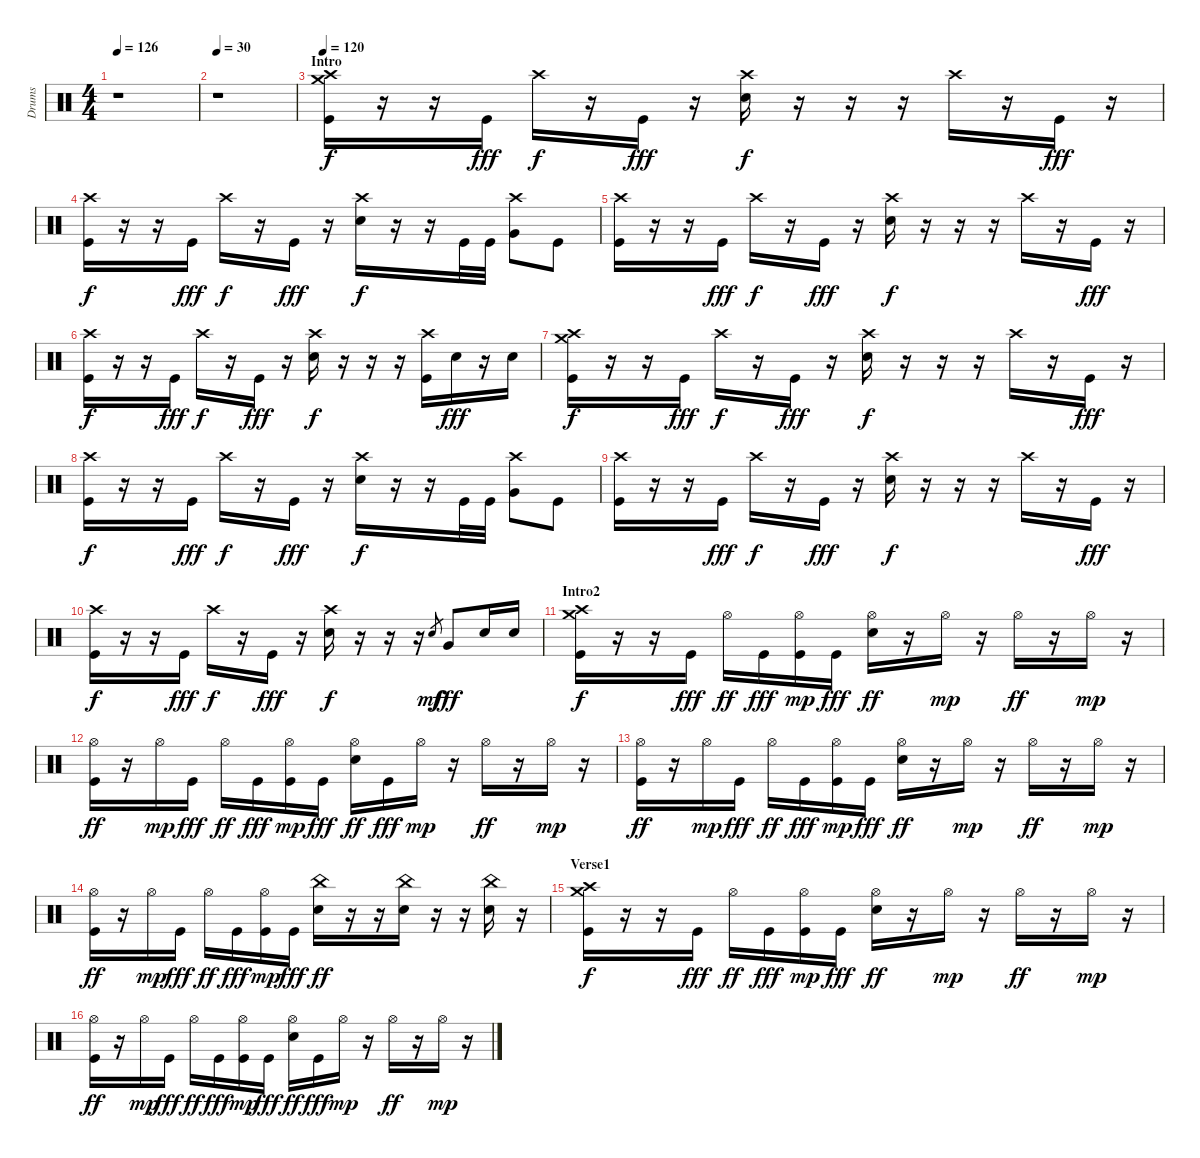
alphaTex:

\track ("Drums" "Drums") {instrument percussion}
\staff {score}
\articulation defaults
\ts (4 4)
\tempo 126
\clef neutral
\ks c
r.1{dy f} |
\tempo 30
r.1 |
\section ("" "Intro")
\tempo 120
("Crash high (hit)" "Crash medium (hit)" "Kick (hit)").16 r.16 r.16 "Kick (hit)".16{dy fff} "Crash high (hit)".16{dy f} r.16 "Kick (hit)".16{dy fff} r.16 ("Crash high (hit)" "Snare (hit) 2").16{dy f} r.16 r.16 r.16 "Crash high (hit)".16 r.16 "Kick (hit)".16{dy fff} r.16 |
("Crash high (hit)" "Kick (hit)").16{dy f} r.16 r.16 "Kick (hit)".16{dy fff} "Crash high (hit)".16{dy f} r.16 "Kick (hit)".16{dy fff} r.16 ("Crash high (hit)" "Snare (hit) 2").16{dy f} r.16 r.16 "Kick (hit)".32 "Kick (hit)".32 ("Crash high (hit)" "Very Low Tom (hit)").8 "Kick (hit)".8 |
("Crash high (hit)" "Kick (hit)").16 r.16 r.16 "Kick (hit)".16{dy fff} "Crash high (hit)".16{dy f} r.16 "Kick (hit)".16{dy fff} r.16 ("Crash high (hit)" "Snare (hit) 2").16{dy f} r.16 r.16 r.16 "Crash high (hit)".16 r.16 "Kick (hit)".16{dy fff} r.16 |
("Crash high (hit)" "Kick (hit)").16{dy f} r.16 r.16 "Kick (hit)".16{dy fff} "Crash high (hit)".16{dy f} r.16 "Kick (hit)".16{dy fff} r.16 ("Crash high (hit)" "Snare (hit) 2").16{dy f} r.16 r.16 r.16 ("Crash high (hit)" "Kick (hit)").16 "Snare (hit) 2".16{dy fff} r.16 "Snare (hit) 2".16 |
("Crash high (hit)" "Crash medium (hit)" "Kick (hit)").16{dy f} r.16 r.16 "Kick (hit)".16{dy fff} "Crash high (hit)".16{dy f} r.16 "Kick (hit)".16{dy fff} r.16 ("Crash high (hit)" "Snare (hit) 2").16{dy f} r.16 r.16 r.16 "Crash high (hit)".16 r.16 "Kick (hit)".16{dy fff} r.16 |
("Crash high (hit)" "Kick (hit)").16{dy f} r.16 r.16 "Kick (hit)".16{dy fff} "Crash high (hit)".16{dy f} r.16 "Kick (hit)".16{dy fff} r.16 ("Crash high (hit)" "Snare (hit) 2").16{dy f} r.16 r.16 "Kick (hit)".32 "Kick (hit)".32 ("Crash high (hit)" "Very Low Tom (hit)").8 "Kick (hit)".8 |
("Crash high (hit)" "Kick (hit)").16 r.16 r.16 "Kick (hit)".16{dy fff} "Crash high (hit)".16{dy f} r.16 "Kick (hit)".16{dy fff} r.16 ("Crash high (hit)" "Snare (hit) 2").16{dy f} r.16 r.16 r.16 "Crash high (hit)".16 r.16 "Kick (hit)".16{dy fff} r.16 |
("Crash high (hit)" "Kick (hit)").16{dy f} r.16 r.16 "Kick (hit)".16{dy fff} "Crash high (hit)".16{dy f} r.16 "Kick (hit)".16{dy fff} r.16 ("Crash high (hit)" "Snare (hit) 2").16{dy f} r.16 r.16 r.16 "Snare (hit)".8{gr dy mf} "Very Low Tom (hit)".8{dy fff} "Snare (hit) 2".16 "Snare (hit) 2".16 |
\section ("" "Intro2")
("Crash high (hit)" "Crash medium (hit)" "Kick (hit)").16{dy f} r.16 r.16 "Kick (hit)".16{dy fff} "Hi-Hat (open)".16{dy ff} "Kick (hit)".16{dy fff} ("Hi-Hat (open)" "Kick (hit)").16{dy mp} "Kick (hit)".16{dy fff} ("Hi-Hat (open)" "Snare (hit) 2").16{dy ff} r.16 "Hi-Hat (open)".16{dy mp} r.16 "Hi-Hat (open)".16{dy ff} r.16 "Hi-Hat (open)".16{dy mp} r.16 |
("Hi-Hat (open)" "Kick (hit)").16{dy ff} r.16 "Hi-Hat (open)".16{dy mp} "Kick (hit)".16{dy fff} "Hi-Hat (open)".16{dy ff} "Kick (hit)".16{dy fff} ("Hi-Hat (open)" "Kick (hit)").16{dy mp} "Kick (hit)".16{dy fff} ("Hi-Hat (open)" "Snare (hit) 2").16{dy ff} "Kick (hit)".16{dy fff} "Hi-Hat (open)".16{dy mp} r.16 "Hi-Hat (open)".16{dy ff} r.16 "Hi-Hat (open)".16{dy mp} r.16 |
("Hi-Hat (open)" "Kick (hit)").16{dy ff} r.16 "Hi-Hat (open)".16{dy mp} "Kick (hit)".16{dy fff} "Hi-Hat (open)".16{dy ff} "Kick (hit)".16{dy fff} ("Hi-Hat (open)" "Kick (hit)").16{dy mp} "Kick (hit)".16{dy fff} ("Hi-Hat (open)" "Snare (hit) 2").16{dy ff} r.16 "Hi-Hat (open)".16{dy mp} r.16 "Hi-Hat (open)".16{dy ff} r.16 "Hi-Hat (open)".16{dy mp} r.16 |
("Hi-Hat (open)" "Kick (hit)").16{dy ff} r.16 "Hi-Hat (open)".16{dy mp} "Kick (hit)".16{dy fff} "Hi-Hat (open)".16{dy ff} "Kick (hit)".16{dy fff} ("Hi-Hat (open)" "Kick (hit)").16{dy mp} "Kick (hit)".16{dy fff} ("China (hit)" "Snare (hit) 2").16{dy ff} r.16 r.16 ("China (hit)" "Snare (hit) 2").16 r.16 r.16 ("China (hit)" "Snare (hit) 2").16 r.16 |
\section ("" "Verse1")
("Crash high (hit)" "Crash medium (hit)" "Kick (hit)").16{dy f} r.16 r.16 "Kick (hit)".16{dy fff} "Hi-Hat (open)".16{dy ff} "Kick (hit)".16{dy fff} ("Hi-Hat (open)" "Kick (hit)").16{dy mp} "Kick (hit)".16{dy fff} ("Hi-Hat (open)" "Snare (hit) 2").16{dy ff} r.16 "Hi-Hat (open)".16{dy mp} r.16 "Hi-Hat (open)".16{dy ff} r.16 "Hi-Hat (open)".16{dy mp} r.16 |
("Hi-Hat (open)" "Kick (hit)").16{dy ff} r.16 "Hi-Hat (open)".16{dy mp} "Kick (hit)".16{dy fff} "Hi-Hat (open)".16{dy ff} "Kick (hit)".16{dy fff} ("Hi-Hat (open)" "Kick (hit)").16{dy mp} "Kick (hit)".16{dy fff} ("Hi-Hat (open)" "Snare (hit) 2").16{dy ff} "Kick (hit)".16{dy fff} "Hi-Hat (open)".16{dy mp} r.16 "Hi-Hat (open)".16{dy ff} r.16 "Hi-Hat (open)".16{dy mp} r.16
